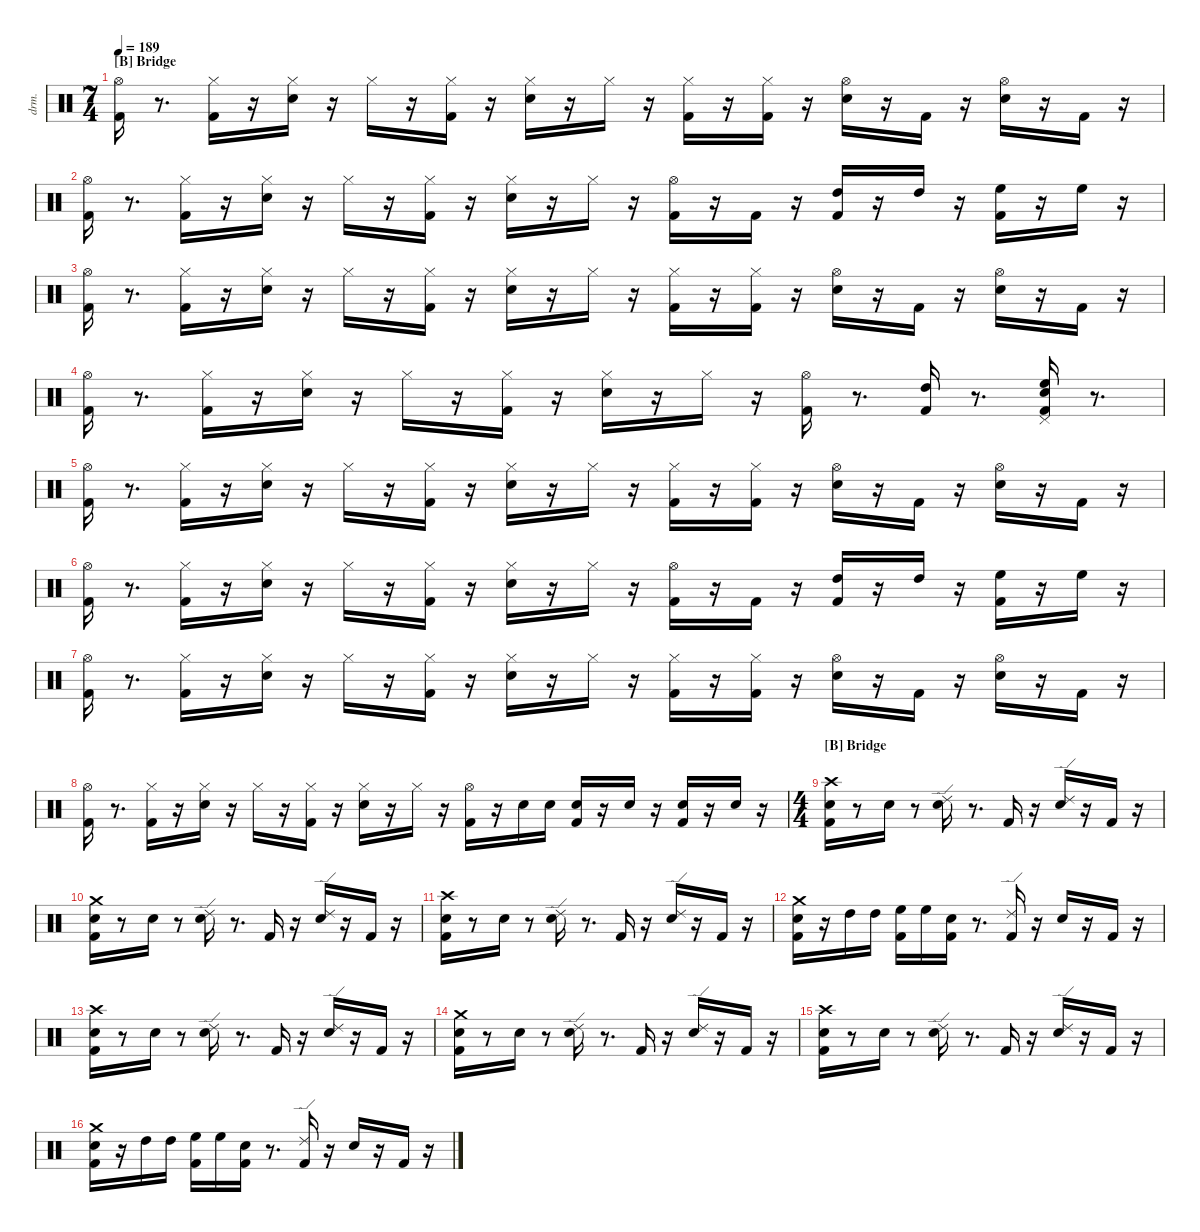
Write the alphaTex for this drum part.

\defaultSystemsLayout 4
\hideDynamics
\bracketExtendMode nobrackets
\track ("EZdrummer 3" "drm.") {instrument percussion}
\staff {score}
\articulation defaults
\ts (7 4)
\section ("B" "Bridge")
\tempo 189
\clef neutral
\ks aminor
("Kick (hit) 2" "Hi-Hat (open)"{acc #}).16{dy ff} r.8{d} ("Kick (hit) 2" "Hi-Hat (closed)"{acc #}).16 r.16 ("Snare (hit) 2" "Hi-Hat (closed)"{acc #}).16 r.16 "Hi-Hat (closed)"{acc #}.16 r.16 ("Kick (hit) 2" "Hi-Hat (closed)"{acc #}).16 r.16 ("Snare (hit) 2" "Hi-Hat (closed)"{acc #}).16 r.16 "Hi-Hat (closed)"{acc #}.16{dy p} r.16 ("Kick (hit) 2" "Hi-Hat (closed)"{acc #}).16{dy ff} r.16 ("Kick (hit) 2" "Hi-Hat (closed)"{acc #}).16 r.16 ("Snare (hit) 2" "Hi-Hat (open)"{acc #}).16 r.16 "Kick (hit) 2".16 r.16 ("Snare (hit) 2" "Hi-Hat (open)"{acc #}).16 r.16 "Kick (hit) 2".16 r.16 |
("Kick (hit) 2" "Hi-Hat (open)"{acc #}).16 r.8{d} ("Kick (hit) 2" "Hi-Hat (closed)"{acc #}).16 r.16 ("Snare (hit) 2" "Hi-Hat (closed)"{acc #}).16{dy p} r.16 "Hi-Hat (closed)"{acc #}.16{dy ff} r.16 ("Kick (hit) 2" "Hi-Hat (closed)"{acc #}).16 r.16 ("Snare (hit) 2" "Hi-Hat (closed)"{acc #}).16 r.16 "Hi-Hat (closed)"{acc #}.16{dy p} r.16 ("Kick (hit) 2" "Hi-Hat (open)"{acc #}).16{dy mf} r.16 "Kick (hit) 2".16{dy ff} r.16 ("Kick (hit) 2" "High Tom (hit)").16 r.16 "High Tom (hit)".16{dy mf} r.16 ("Kick (hit) 2" "High Floor Tom (hit)").16{dy fff} r.16 "High Floor Tom (hit)".16{dy mf} r.16 |
("Kick (hit) 2" "Hi-Hat (open)"{acc #}).16{dy ff} r.8{d} ("Kick (hit) 2" "Hi-Hat (closed)"{acc #}).16 r.16 ("Snare (hit) 2" "Hi-Hat (closed)"{acc #}).16 r.16 "Hi-Hat (closed)"{acc #}.16 r.16 ("Kick (hit) 2" "Hi-Hat (closed)"{acc #}).16 r.16 ("Snare (hit) 2" "Hi-Hat (closed)"{acc #}).16 r.16 "Hi-Hat (closed)"{acc #}.16{dy p} r.16 ("Kick (hit) 2" "Hi-Hat (closed)"{acc #}).16{dy ff} r.16 ("Kick (hit) 2" "Hi-Hat (closed)"{acc #}).16 r.16 ("Snare (hit) 2" "Hi-Hat (open)"{acc #}).16 r.16 "Kick (hit) 2".16 r.16 ("Snare (hit) 2" "Hi-Hat (open)"{acc #}).16{dy f} r.16 "Kick (hit) 2".16{dy ff} r.16 |
("Kick (hit) 2" "Hi-Hat (open)"{acc #}).16 r.8{d} ("Kick (hit) 2" "Hi-Hat (closed)"{acc #}).16 r.16 ("Snare (hit) 2" "Hi-Hat (closed)"{acc #}).16 r.16 "Hi-Hat (closed)"{acc #}.16 r.16 ("Kick (hit) 2" "Hi-Hat (closed)"{acc #}).16 r.16 ("Snare (hit) 2" "Hi-Hat (closed)"{acc #}).16 r.16 "Hi-Hat (closed)"{acc #}.16{dy p} r.16 ("Kick (hit) 2" "Hi-Hat (open)"{acc #}).16{dy mf} r.8{d} ("Kick (hit) 2" "High Tom (hit)").16{dy ff} r.8{d} ("Pedal Hi-Hat (hit)"{acc #} "High Floor Tom (hit)" "Kick (hit) 2" "Snare (hit) 2").16 r.8{d} |
("Kick (hit) 2" "Hi-Hat (open)"{acc #}).16 r.8{d} ("Kick (hit) 2" "Hi-Hat (closed)"{acc #}).16 r.16 ("Snare (hit) 2" "Hi-Hat (closed)"{acc #}).16 r.16 "Hi-Hat (closed)"{acc #}.16 r.16 ("Kick (hit) 2" "Hi-Hat (closed)"{acc #}).16 r.16 ("Snare (hit) 2" "Hi-Hat (closed)"{acc #}).16 r.16 "Hi-Hat (closed)"{acc #}.16{dy p} r.16 ("Kick (hit) 2" "Hi-Hat (closed)"{acc #}).16{dy ff} r.16 ("Kick (hit) 2" "Hi-Hat (closed)"{acc #}).16 r.16 ("Snare (hit) 2" "Hi-Hat (open)"{acc #}).16 r.16 "Kick (hit) 2".16 r.16 ("Snare (hit) 2" "Hi-Hat (open)"{acc #}).16 r.16 "Kick (hit) 2".16 r.16 |
("Kick (hit) 2" "Hi-Hat (open)"{acc #}).16 r.8{d} ("Kick (hit) 2" "Hi-Hat (closed)"{acc #}).16 r.16 ("Snare (hit) 2" "Hi-Hat (closed)"{acc #}).16 r.16 "Hi-Hat (closed)"{acc #}.16 r.16 ("Kick (hit) 2" "Hi-Hat (closed)"{acc #}).16 r.16 ("Snare (hit) 2" "Hi-Hat (closed)"{acc #}).16 r.16 "Hi-Hat (closed)"{acc #}.16{dy p} r.16 ("Kick (hit) 2" "Hi-Hat (open)"{acc #}).16{dy mf} r.16 "Kick (hit) 2".16{dy ff} r.16 ("Kick (hit) 2" "High Tom (hit)").16{dy mf} r.16 "High Tom (hit)".16 r.16 ("Kick (hit) 2" "High Floor Tom (hit)").16{dy fff} r.16 "High Floor Tom (hit)".16{dy mf} r.16 |
("Kick (hit) 2" "Hi-Hat (open)"{acc #}).16{dy ff} r.8{d} ("Kick (hit) 2" "Hi-Hat (closed)"{acc #}).16 r.16 ("Snare (hit) 2" "Hi-Hat (closed)"{acc #}).16{dy p} r.16 "Hi-Hat (closed)"{acc #}.16{dy ff} r.16 ("Kick (hit) 2" "Hi-Hat (closed)"{acc #}).16 r.16 ("Snare (hit) 2" "Hi-Hat (closed)"{acc #}).16 r.16 "Hi-Hat (closed)"{acc #}.16{dy p} r.16 ("Kick (hit) 2" "Hi-Hat (closed)"{acc #}).16{dy ff} r.16 ("Kick (hit) 2" "Hi-Hat (closed)"{acc #}).16 r.16 ("Snare (hit) 2" "Hi-Hat (open)"{acc #}).16 r.16 "Kick (hit) 2".16 r.16 ("Snare (hit) 2" "Hi-Hat (open)"{acc #}).16 r.16 "Kick (hit) 2".16 r.16 |
("Kick (hit) 2" "Hi-Hat (open)"{acc #}).16 r.8{d} ("Kick (hit) 2" "Hi-Hat (closed)"{acc #}).16 r.16 ("Snare (hit) 2" "Hi-Hat (closed)"{acc #}).16 r.16 "Hi-Hat (closed)"{acc #}.16 r.16 ("Kick (hit) 2" "Hi-Hat (closed)"{acc #}).16 r.16 ("Snare (hit) 2" "Hi-Hat (closed)"{acc #}).16 r.16 "Hi-Hat (closed)"{acc #}.16{dy p} r.16 ("Kick (hit) 2" "Hi-Hat (open)"{acc #}).16{dy mf} r.16 "Snare (hit) 2".16{dy f} "Snare (hit) 2".16{dy p} ("Kick (hit) 2" "Snare (hit) 2").16{dy f} r.16 "Snare (hit) 2".16 r.16 ("Kick (hit) 2" "Snare (hit) 2").16{dy fff} r.16 "Snare (hit) 2".16{dy f} r.16 |
\ts (4 4)
\section ("B" "Bridge")
("Kick (hit) 2" "Snare (hit) 2" "Crash high (hit)"{acc #}).16{dy fff} r.8 "Snare (hit) 2".16{dy ff} r.8 ("Snare (hit) 2" "Ride (edge) 2").16 r.8{d} "Kick (hit) 2".16 r.16 ("Snare (hit) 2" "Ride (edge) 2").16 r.16 "Kick (hit) 2".16{dy f} r.16 |
("Crash medium (hit)" "Kick (hit) 2" "Snare (hit) 2").16{dy ff} r.8 "Snare (hit) 2".16 r.8 ("Snare (hit) 2" "Ride (edge) 2").16 r.8{d} "Kick (hit) 2".16 r.16 ("Snare (hit) 2" "Ride (edge) 2").16{dy f} r.16 "Kick (hit) 2".16 r.16 |
("Kick (hit) 2" "Snare (hit) 2" "Crash high (hit)"{acc #}).16{dy fff} r.8 "Snare (hit) 2".16{dy ff} r.8 ("Snare (hit) 2" "Ride (edge) 2").16 r.8{d} "Kick (hit) 2".16 r.16 ("Snare (hit) 2" "Ride (edge) 2").16 r.16 "Kick (hit) 2".16{dy f} r.16 |
("Kick (hit) 2" "Snare (hit) 2" "Crash medium (hit)").16{dy fff} r.16 "High Tom (hit)".16{dy ff} "High Tom (hit)".16{dy mf} ("Kick (hit) 2" "High Floor Tom (hit)").16 "High Floor Tom (hit)".16 ("Kick (hit) 2" "Snare (hit) 2").16{dy fff} r.8{d} ("Kick (hit) 2" "Ride (edge) 2").16{dy ff} r.16 "Snare (hit) 2".16 r.16 "Kick (hit) 2".16{dy f} r.16 |
("Crash high (hit)"{acc #} "Kick (hit) 2" "Snare (hit) 2").16{dy ff} r.8 "Snare (hit) 2".16 r.8 ("Snare (hit) 2" "Ride (edge) 2").16 r.8{d} "Kick (hit) 2".16 r.16 ("Snare (hit) 2" "Ride (edge) 2").16 r.16 "Kick (hit) 2".16{dy f} r.16 |
("Kick (hit) 2" "Snare (hit) 2" "Crash medium (hit)").16{dy fff} r.8 "Snare (hit) 2".16{dy ff} r.8 ("Snare (hit) 2" "Ride (edge) 2").16 r.8{d} "Kick (hit) 2".16 r.16 ("Snare (hit) 2" "Ride (edge) 2").16 r.16 "Kick (hit) 2".16{dy f} r.16 |
("Snare (hit) 2" "Crash high (hit)"{acc #} "Kick (hit) 2").16{dy ff} r.8 "Snare (hit) 2".16 r.8 ("Snare (hit) 2" "Ride (edge) 2").16 r.8{d} "Kick (hit) 2".16 r.16 ("Snare (hit) 2" "Ride (edge) 2").16 r.16 "Kick (hit) 2".16{dy f} r.16 |
("Crash medium (hit)" "Kick (hit) 2" "Snare (hit) 2").16{dy ff} r.16 "High Tom (hit)".16 "High Tom (hit)".16{dy mf} ("Kick (hit) 2" "High Floor Tom (hit)").16 "High Floor Tom (hit)".16 ("Kick (hit) 2" "Snare (hit) 2").16{dy fff} r.8{d} ("Kick (hit) 2" "Ride (edge) 2").16{dy ff} r.16 "Snare (hit) 2".16 r.16 "Kick (hit) 2".16{dy f} r.16
